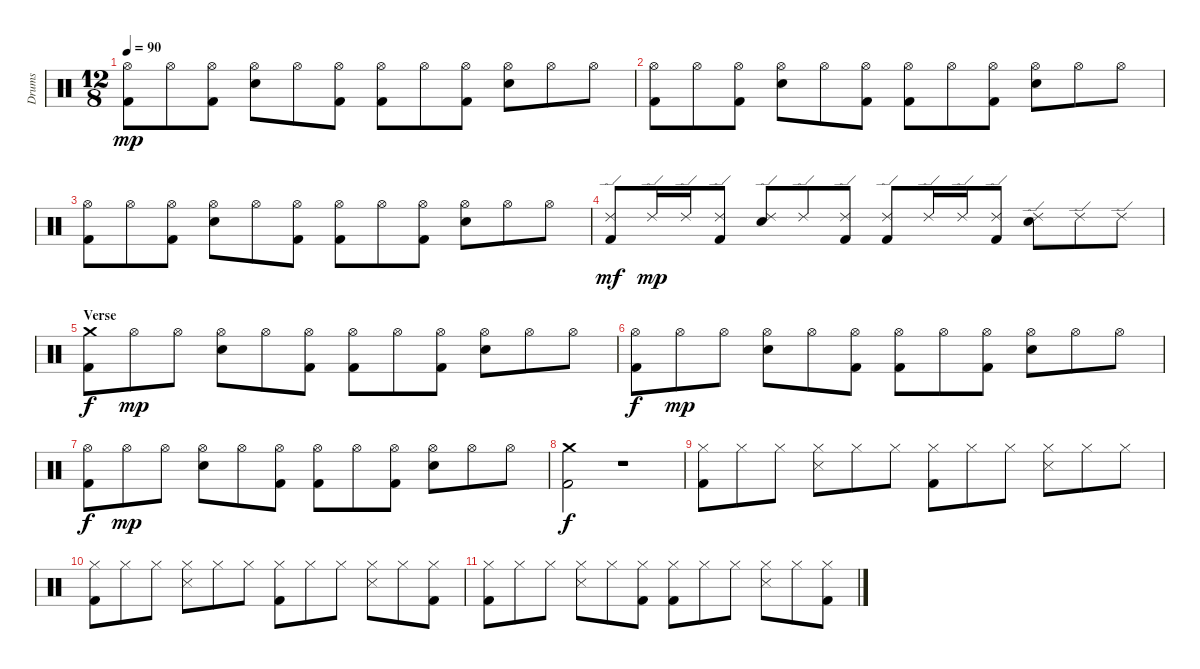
\track ("Drums" "Drums") {instrument percussion}
\staff {score}
\articulation defaults
\ts (12 8)
\tempo 90
\clef neutral
\ks c
("Hi-Hat (open)" "Kick (hit) 2").8{dy mp} "Hi-Hat (open)".8 ("Hi-Hat (open)" "Kick (hit) 2").8 ("Hi-Hat (open)" "Snare (hit) 2").8 "Hi-Hat (open)".8 ("Hi-Hat (open)" "Kick (hit) 2").8 ("Hi-Hat (open)" "Kick (hit) 2").8 "Hi-Hat (open)".8 ("Hi-Hat (open)" "Kick (hit) 2").8 ("Hi-Hat (open)" "Snare (hit) 2").8 "Hi-Hat (open)".8 "Hi-Hat (open)".8 |
("Hi-Hat (open)" "Kick (hit) 2").8 "Hi-Hat (open)".8 ("Hi-Hat (open)" "Kick (hit) 2").8 ("Hi-Hat (open)" "Snare (hit) 2").8 "Hi-Hat (open)".8 ("Hi-Hat (open)" "Kick (hit) 2").8 ("Hi-Hat (open)" "Kick (hit) 2").8 "Hi-Hat (open)".8 ("Hi-Hat (open)" "Kick (hit) 2").8 ("Hi-Hat (open)" "Snare (hit) 2").8 "Hi-Hat (open)".8 "Hi-Hat (open)".8 |
("Hi-Hat (open)" "Kick (hit) 2").8 "Hi-Hat (open)".8 ("Hi-Hat (open)" "Kick (hit) 2").8 ("Hi-Hat (open)" "Snare (hit) 2").8 "Hi-Hat (open)".8 ("Hi-Hat (open)" "Kick (hit) 2").8 ("Hi-Hat (open)" "Kick (hit) 2").8 "Hi-Hat (open)".8 ("Hi-Hat (open)" "Kick (hit) 2").8 ("Hi-Hat (open)" "Snare (hit) 2").8 "Hi-Hat (open)".8 "Hi-Hat (open)".8 |
("Ride (edge) 2" "Kick (hit) 2").8{dy mf} "Ride (edge) 2".16{dy mp} "Ride (edge) 2".16 ("Ride (edge) 2" "Kick (hit) 2").8 ("Ride (edge) 2" "Snare (hit) 2").8 "Ride (edge) 2".8 ("Ride (edge) 2" "Kick (hit) 2").8 ("Ride (edge) 2" "Kick (hit) 2").8 "Ride (edge) 2".16 "Ride (edge) 2".16 ("Ride (edge) 2" "Kick (hit) 2").8 ("Ride (edge) 2" "Snare (hit) 2").8 "Ride (edge) 2".8 "Ride (edge) 2".8 |
\section ("" "Verse")
("Crash medium (hit)" "Kick (hit) 2").8{dy f} "Hi-Hat (open)".8{dy mp} "Hi-Hat (open)".8 ("Hi-Hat (open)" "Snare (hit) 2").8 "Hi-Hat (open)".8 ("Hi-Hat (open)" "Kick (hit) 2").8 ("Hi-Hat (open)" "Kick (hit) 2").8 "Hi-Hat (open)".8 ("Hi-Hat (open)" "Kick (hit) 2").8 ("Hi-Hat (open)" "Snare (hit) 2").8 "Hi-Hat (open)".8 "Hi-Hat (open)".8 |
("Hi-Hat (open)" "Kick (hit) 2").8{dy f} "Hi-Hat (open)".8{dy mp} "Hi-Hat (open)".8 ("Hi-Hat (open)" "Snare (hit) 2").8 "Hi-Hat (open)".8 ("Hi-Hat (open)" "Kick (hit) 2").8 ("Hi-Hat (open)" "Kick (hit) 2").8 "Hi-Hat (open)".8 ("Hi-Hat (open)" "Kick (hit) 2").8 ("Hi-Hat (open)" "Snare (hit) 2").8 "Hi-Hat (open)".8 "Hi-Hat (open)".8 |
("Hi-Hat (open)" "Kick (hit) 2").8{dy f} "Hi-Hat (open)".8{dy mp} "Hi-Hat (open)".8 ("Hi-Hat (open)" "Snare (hit) 2").8 "Hi-Hat (open)".8 ("Hi-Hat (open)" "Kick (hit) 2").8 ("Hi-Hat (open)" "Kick (hit) 2").8 "Hi-Hat (open)".8 ("Hi-Hat (open)" "Kick (hit) 2").8 ("Hi-Hat (open)" "Snare (hit) 2").8 "Hi-Hat (open)".8 "Hi-Hat (open)".8 |
("Crash medium (hit)" "Kick (hit) 2").2{dy f} r.1 |
("Hi-Hat (closed)" "Kick (hit) 2").8 "Hi-Hat (closed)".8 "Hi-Hat (closed)".8 ("Hi-Hat (closed)" "Snare (side stick) 3").8 "Hi-Hat (closed)".8 "Hi-Hat (closed)".8 ("Hi-Hat (closed)" "Kick (hit) 2").8 "Hi-Hat (closed)".8 "Hi-Hat (closed)".8 ("Hi-Hat (closed)" "Snare (side stick) 3").8 "Hi-Hat (closed)".8 "Hi-Hat (closed)".8 |
("Hi-Hat (closed)" "Kick (hit) 2").8 "Hi-Hat (closed)".8 "Hi-Hat (closed)".8 ("Hi-Hat (closed)" "Snare (side stick) 3").8 "Hi-Hat (closed)".8 "Hi-Hat (closed)".8 ("Hi-Hat (closed)" "Kick (hit) 2").8 "Hi-Hat (closed)".8 "Hi-Hat (closed)".8 ("Hi-Hat (closed)" "Snare (side stick) 3").8 "Hi-Hat (closed)".8 ("Hi-Hat (closed)" "Kick (hit) 2").8 |
("Hi-Hat (closed)" "Kick (hit) 2").8 "Hi-Hat (closed)".8 "Hi-Hat (closed)".8 ("Hi-Hat (closed)" "Snare (side stick) 3").8 "Hi-Hat (closed)".8 ("Hi-Hat (closed)" "Kick (hit) 2").8 ("Hi-Hat (closed)" "Kick (hit) 2").8 "Hi-Hat (closed)".8 "Hi-Hat (closed)".8 ("Hi-Hat (closed)" "Snare (side stick) 3").8 "Hi-Hat (closed)".8 ("Hi-Hat (closed)" "Kick (hit) 2").8
